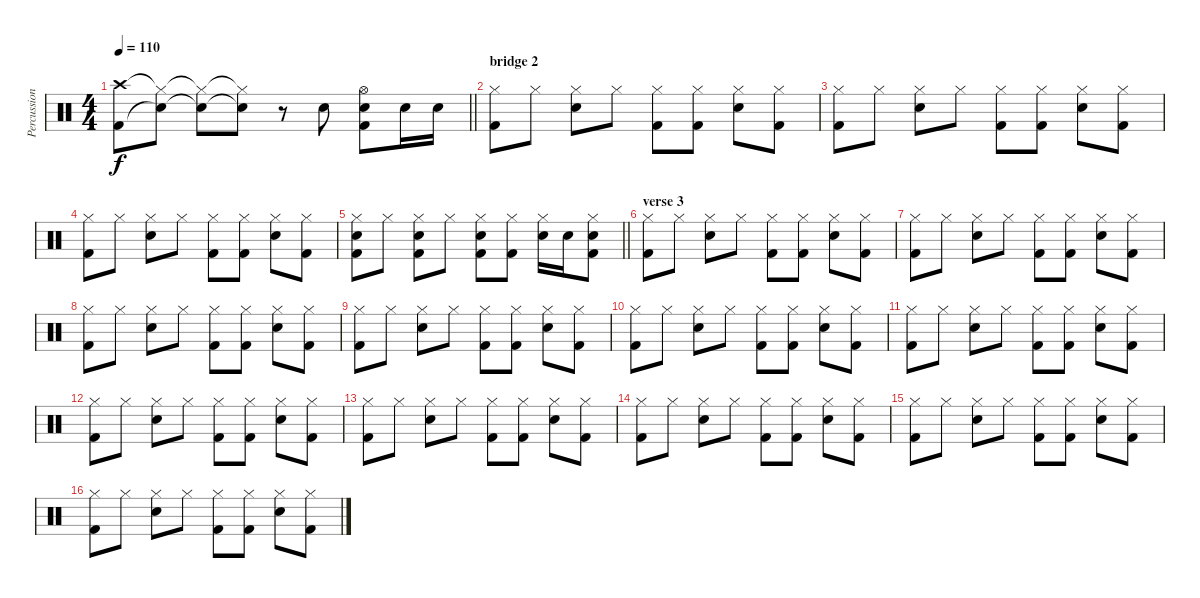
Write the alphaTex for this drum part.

\track ("Percussions" "Percussion") {instrument percussion}
\staff {score}
\articulation defaults
\ts (4 4)
\tempo 110
\clef neutral
\barLineRight lightlight
\ks c
("Crash high (hit)"{t} "Kick (hit) 2"{t}).8{dy f} ("Hi-Hat (closed)"{t} "Snare (hit)"{t}).8 ("Hi-Hat (closed)"{t} "Snare (hit)"{t}).8 ("Hi-Hat (closed)"{t} "Snare (hit)"{t}).8 r.8 "Electric Snare (hit)".8 ("Hi-Hat (open)" "Electric Snare (hit)" "Kick (hit) 2").8 "Electric Snare (hit)".16 "Electric Snare (hit)".16 |
\section ("" "bridge 2")
("Hi-Hat (closed)" "Kick (hit) 2").8 "Hi-Hat (closed)".8 ("Hi-Hat (closed)" "Electric Snare (hit)").8 "Hi-Hat (closed)".8 ("Hi-Hat (closed)" "Kick (hit) 2").8 ("Hi-Hat (closed)" "Kick (hit) 2").8 ("Hi-Hat (closed)" "Electric Snare (hit)").8 ("Hi-Hat (closed)" "Kick (hit) 2").8 |
("Hi-Hat (closed)" "Kick (hit) 2").8 "Hi-Hat (closed)".8 ("Hi-Hat (closed)" "Electric Snare (hit)").8 "Hi-Hat (closed)".8 ("Hi-Hat (closed)" "Kick (hit) 2").8 ("Hi-Hat (closed)" "Kick (hit) 2").8 ("Hi-Hat (closed)" "Electric Snare (hit)").8 ("Hi-Hat (closed)" "Kick (hit) 2").8 |
("Hi-Hat (closed)" "Kick (hit) 2").8 "Hi-Hat (closed)".8 ("Hi-Hat (closed)" "Electric Snare (hit)").8 "Hi-Hat (closed)".8 ("Hi-Hat (closed)" "Kick (hit) 2").8 ("Hi-Hat (closed)" "Kick (hit) 2").8 ("Hi-Hat (closed)" "Electric Snare (hit)").8 ("Hi-Hat (closed)" "Kick (hit) 2").8 |
\barLineRight lightlight
("Hi-Hat (closed)" "Electric Snare (hit)" "Kick (hit) 2").8 "Hi-Hat (closed)".8 ("Hi-Hat (closed)" "Electric Snare (hit)" "Kick (hit) 2").8 "Hi-Hat (closed)".8 ("Hi-Hat (closed)" "Electric Snare (hit)" "Kick (hit) 2").8 ("Hi-Hat (closed)" "Kick (hit) 2").8 ("Hi-Hat (closed)" "Electric Snare (hit)").16 "Electric Snare (hit)".16 ("Hi-Hat (closed)" "Electric Snare (hit)" "Kick (hit) 2").8 |
\section ("" "verse 3")
("Hi-Hat (closed)" "Kick (hit) 2").8 "Hi-Hat (closed)".8 ("Hi-Hat (closed)" "Electric Snare (hit)").8 "Hi-Hat (closed)".8 ("Hi-Hat (closed)" "Kick (hit) 2").8 ("Hi-Hat (closed)" "Kick (hit) 2").8 ("Hi-Hat (closed)" "Electric Snare (hit)").8 ("Hi-Hat (closed)" "Kick (hit) 2").8 |
("Hi-Hat (closed)" "Kick (hit) 2").8 "Hi-Hat (closed)".8 ("Hi-Hat (closed)" "Electric Snare (hit)").8 "Hi-Hat (closed)".8 ("Hi-Hat (closed)" "Kick (hit) 2").8 ("Hi-Hat (closed)" "Kick (hit) 2").8 ("Hi-Hat (closed)" "Electric Snare (hit)").8 ("Hi-Hat (closed)" "Kick (hit) 2").8 |
("Hi-Hat (closed)" "Kick (hit) 2").8 "Hi-Hat (closed)".8 ("Hi-Hat (closed)" "Electric Snare (hit)").8 "Hi-Hat (closed)".8 ("Hi-Hat (closed)" "Kick (hit) 2").8 ("Hi-Hat (closed)" "Kick (hit) 2").8 ("Hi-Hat (closed)" "Electric Snare (hit)").8 ("Hi-Hat (closed)" "Kick (hit) 2").8 |
("Hi-Hat (closed)" "Kick (hit) 2").8 "Hi-Hat (closed)".8 ("Hi-Hat (closed)" "Electric Snare (hit)").8 "Hi-Hat (closed)".8 ("Hi-Hat (closed)" "Kick (hit) 2").8 ("Hi-Hat (closed)" "Kick (hit) 2").8 ("Hi-Hat (closed)" "Electric Snare (hit)").8 ("Hi-Hat (closed)" "Kick (hit) 2").8 |
("Hi-Hat (closed)" "Kick (hit) 2").8 "Hi-Hat (closed)".8 ("Hi-Hat (closed)" "Electric Snare (hit)").8 "Hi-Hat (closed)".8 ("Hi-Hat (closed)" "Kick (hit) 2").8 ("Hi-Hat (closed)" "Kick (hit) 2").8 ("Hi-Hat (closed)" "Electric Snare (hit)").8 ("Hi-Hat (closed)" "Kick (hit) 2").8 |
("Hi-Hat (closed)" "Kick (hit) 2").8 "Hi-Hat (closed)".8 ("Hi-Hat (closed)" "Electric Snare (hit)").8 "Hi-Hat (closed)".8 ("Hi-Hat (closed)" "Kick (hit) 2").8 ("Hi-Hat (closed)" "Kick (hit) 2").8 ("Hi-Hat (closed)" "Electric Snare (hit)").8 ("Hi-Hat (closed)" "Kick (hit) 2").8 |
("Hi-Hat (closed)" "Kick (hit) 2").8 "Hi-Hat (closed)".8 ("Hi-Hat (closed)" "Electric Snare (hit)").8 "Hi-Hat (closed)".8 ("Hi-Hat (closed)" "Kick (hit) 2").8 ("Hi-Hat (closed)" "Kick (hit) 2").8 ("Hi-Hat (closed)" "Electric Snare (hit)").8 ("Hi-Hat (closed)" "Kick (hit) 2").8 |
("Hi-Hat (closed)" "Kick (hit) 2").8 "Hi-Hat (closed)".8 ("Hi-Hat (closed)" "Electric Snare (hit)").8 "Hi-Hat (closed)".8 ("Hi-Hat (closed)" "Kick (hit) 2").8 ("Hi-Hat (closed)" "Kick (hit) 2").8 ("Hi-Hat (closed)" "Electric Snare (hit)").8 ("Hi-Hat (closed)" "Kick (hit) 2").8 |
("Hi-Hat (closed)" "Kick (hit) 2").8 "Hi-Hat (closed)".8 ("Hi-Hat (closed)" "Electric Snare (hit)").8 "Hi-Hat (closed)".8 ("Hi-Hat (closed)" "Kick (hit) 2").8 ("Hi-Hat (closed)" "Kick (hit) 2").8 ("Hi-Hat (closed)" "Electric Snare (hit)").8 ("Hi-Hat (closed)" "Kick (hit) 2").8 |
("Hi-Hat (closed)" "Kick (hit) 2").8 "Hi-Hat (closed)".8 ("Hi-Hat (closed)" "Electric Snare (hit)").8 "Hi-Hat (closed)".8 ("Hi-Hat (closed)" "Kick (hit) 2").8 ("Hi-Hat (closed)" "Kick (hit) 2").8 ("Hi-Hat (closed)" "Electric Snare (hit)").8 ("Hi-Hat (closed)" "Kick (hit) 2").8 |
("Hi-Hat (closed)" "Kick (hit) 2").8 "Hi-Hat (closed)".8 ("Hi-Hat (closed)" "Electric Snare (hit)").8 "Hi-Hat (closed)".8 ("Hi-Hat (closed)" "Kick (hit) 2").8 ("Hi-Hat (closed)" "Kick (hit) 2").8 ("Hi-Hat (closed)" "Electric Snare (hit)").8 ("Hi-Hat (closed)" "Kick (hit) 2").8
